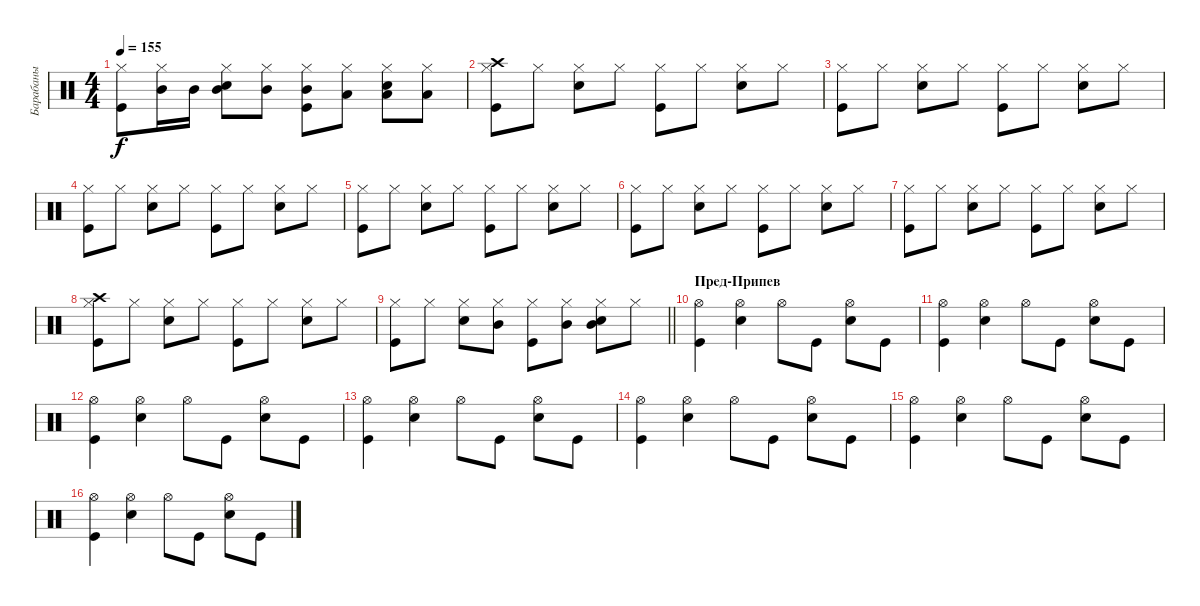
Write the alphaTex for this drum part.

\track ("Барабаны" "Барабаны") {instrument percussion}
\staff {score}
\articulation defaults
\ts (4 4)
\tempo 155
\clef neutral
\ks c
("Kick (hit)" "Hi-Hat (closed)").8{dy f} ("Hi-Hat (closed)" "Mid Tom (hit)").16 "Mid Tom (hit)".16 ("Snare (hit) 2" "Hi-Hat (closed)" "Mid Tom (hit)").8 ("Hi-Hat (closed)" "Mid Tom (hit)").8 ("Kick (hit)" "Hi-Hat (closed)" "Mid Tom (hit)").8 ("Hi-Hat (closed)" "Low Tom (hit)").8 ("Snare (hit) 2" "Hi-Hat (closed)" "Low Tom (hit)").8 ("Hi-Hat (closed)" "Low Tom (hit)").8 |
("Kick (hit)" "Hi-Hat (closed)" "Crash high (hit)").8 "Hi-Hat (closed)".8 ("Snare (hit) 2" "Hi-Hat (closed)").8 "Hi-Hat (closed)".8 ("Kick (hit)" "Hi-Hat (closed)").8 "Hi-Hat (closed)".8 ("Snare (hit) 2" "Hi-Hat (closed)").8 "Hi-Hat (closed)".8 |
("Kick (hit)" "Hi-Hat (closed)").8 "Hi-Hat (closed)".8 ("Snare (hit) 2" "Hi-Hat (closed)").8 "Hi-Hat (closed)".8 ("Kick (hit)" "Hi-Hat (closed)").8 "Hi-Hat (closed)".8 ("Snare (hit) 2" "Hi-Hat (closed)").8 "Hi-Hat (closed)".8 |
("Kick (hit)" "Hi-Hat (closed)").8 "Hi-Hat (closed)".8 ("Snare (hit) 2" "Hi-Hat (closed)").8 "Hi-Hat (closed)".8 ("Kick (hit)" "Hi-Hat (closed)").8 "Hi-Hat (closed)".8 ("Snare (hit) 2" "Hi-Hat (closed)").8 "Hi-Hat (closed)".8 |
("Kick (hit)" "Hi-Hat (closed)").8 "Hi-Hat (closed)".8 ("Snare (hit) 2" "Hi-Hat (closed)").8 "Hi-Hat (closed)".8 ("Kick (hit)" "Hi-Hat (closed)").8 "Hi-Hat (closed)".8 ("Snare (hit) 2" "Hi-Hat (closed)").8 "Hi-Hat (closed)".8 |
("Kick (hit)" "Hi-Hat (closed)").8 "Hi-Hat (closed)".8 ("Snare (hit) 2" "Hi-Hat (closed)").8 "Hi-Hat (closed)".8 ("Kick (hit)" "Hi-Hat (closed)").8 "Hi-Hat (closed)".8 ("Snare (hit) 2" "Hi-Hat (closed)").8 "Hi-Hat (closed)".8 |
("Kick (hit)" "Hi-Hat (closed)").8 "Hi-Hat (closed)".8 ("Snare (hit) 2" "Hi-Hat (closed)").8 "Hi-Hat (closed)".8 ("Kick (hit)" "Hi-Hat (closed)").8 "Hi-Hat (closed)".8 ("Snare (hit) 2" "Hi-Hat (closed)").8 "Hi-Hat (closed)".8 |
("Kick (hit)" "Hi-Hat (closed)" "Crash high (hit)").8 "Hi-Hat (closed)".8 ("Snare (hit) 2" "Hi-Hat (closed)").8 "Hi-Hat (closed)".8 ("Kick (hit)" "Hi-Hat (closed)").8 "Hi-Hat (closed)".8 ("Snare (hit) 2" "Hi-Hat (closed)").8 "Hi-Hat (closed)".8 |
\barLineRight lightlight
("Kick (hit)" "Hi-Hat (closed)").8 "Hi-Hat (closed)".8 ("Snare (hit) 2" "Hi-Hat (closed)").8 ("Hi-Hat (closed)" "Mid Tom (hit)").8 ("Kick (hit)" "Hi-Hat (closed)").8 ("Hi-Hat (closed)" "Mid Tom (hit)").8 ("Snare (hit) 2" "Hi-Hat (closed)" "Mid Tom (hit)").8 "Hi-Hat (closed)".8 |
\section ("" "Пред-Припев")
("Kick (hit)" "Hi-Hat (open)").4 ("Snare (hit) 2" "Hi-Hat (open)").4 "Hi-Hat (open)".8 "Kick (hit)".8 ("Snare (hit) 2" "Hi-Hat (open)").8 "Kick (hit)".8 |
("Kick (hit)" "Hi-Hat (open)").4 ("Snare (hit) 2" "Hi-Hat (open)").4 "Hi-Hat (open)".8 "Kick (hit)".8 ("Snare (hit) 2" "Hi-Hat (open)").8 "Kick (hit)".8 |
("Kick (hit)" "Hi-Hat (open)").4 ("Snare (hit) 2" "Hi-Hat (open)").4 "Hi-Hat (open)".8 "Kick (hit)".8 ("Snare (hit) 2" "Hi-Hat (open)").8 "Kick (hit)".8 |
("Kick (hit)" "Hi-Hat (open)").4 ("Snare (hit) 2" "Hi-Hat (open)").4 "Hi-Hat (open)".8 "Kick (hit)".8 ("Snare (hit) 2" "Hi-Hat (open)").8 "Kick (hit)".8 |
("Kick (hit)" "Hi-Hat (open)").4 ("Snare (hit) 2" "Hi-Hat (open)").4 "Hi-Hat (open)".8 "Kick (hit)".8 ("Snare (hit) 2" "Hi-Hat (open)").8 "Kick (hit)".8 |
("Kick (hit)" "Hi-Hat (open)").4 ("Snare (hit) 2" "Hi-Hat (open)").4 "Hi-Hat (open)".8 "Kick (hit)".8 ("Snare (hit) 2" "Hi-Hat (open)").8 "Kick (hit)".8 |
("Kick (hit)" "Hi-Hat (open)").4 ("Snare (hit) 2" "Hi-Hat (open)").4 "Hi-Hat (open)".8 "Kick (hit)".8 ("Snare (hit) 2" "Hi-Hat (open)").8 "Kick (hit)".8
